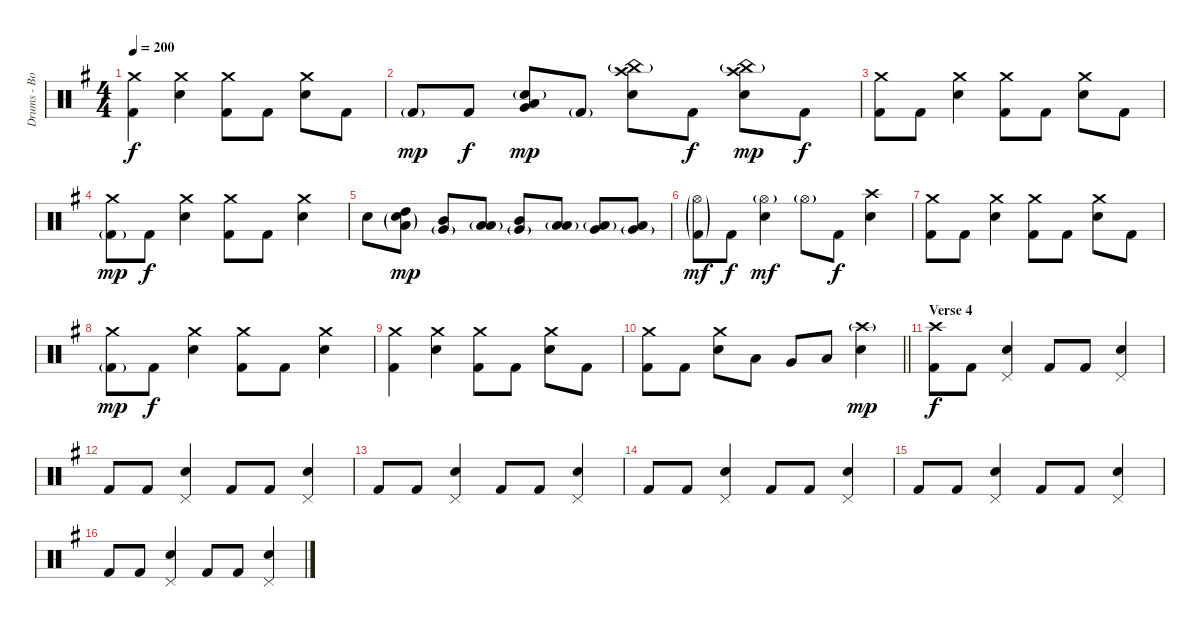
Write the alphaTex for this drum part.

\track ("Drums - Bob Bryar" "Drums - Bo") {instrument percussion}
\staff {score}
\articulation defaults
\ts (4 4)
\tempo 200
\clef neutral
\ks eminor
("Kick (hit) 2" "Crash medium (hit)").4{dy f} ("Electric Snare (hit)" "Crash medium (hit)").4 ("Kick (hit) 2" "Crash medium (hit)").8 "Kick (hit) 2".8 ("Electric Snare (hit)" "Crash medium (hit)").8 "Kick (hit) 2".8 |
"Kick (hit) 2"{g}.8{dy mp} "Kick (hit) 2".8{dy f} ("Electric Snare (hit)"{g} "Very Low Tom (hit)" "Low Floor Tom (hit)").8{dy mp} "Kick (hit) 2"{g}.8 ("Electric Snare (hit)" "Crash high (hit)" "China (hit)"{g}).8 "Kick (hit) 2".8{dy f} ("Electric Snare (hit)" "Crash high (hit)" "China (hit)"{g}).8{dy mp} "Kick (hit) 2".8{dy f} |
("Kick (hit) 2" "Crash medium (hit)").8 "Kick (hit) 2".8 ("Electric Snare (hit)" "Crash medium (hit)").4 ("Kick (hit) 2" "Crash medium (hit)").8 "Kick (hit) 2".8 ("Electric Snare (hit)" "Crash medium (hit)").8 "Kick (hit) 2".8 |
("Kick (hit) 2"{g} "Crash medium (hit)").8{dy mp} "Kick (hit) 2".8{dy f} ("Electric Snare (hit)" "Crash medium (hit)").4 ("Kick (hit) 2" "Crash medium (hit)").8 "Kick (hit) 2".8 ("Electric Snare (hit)" "Crash medium (hit)").4 |
"Electric Snare (hit)".8 ("Electric Snare (hit)"{g} "High Tom (hit)" "Low Tom (hit)"{g}).8{dy mp} ("Mid Tom (hit)" "Very Low Tom (hit)"{g}).8 ("Low Tom (hit)" "Low Floor Tom (hit)"{g}).8 ("Mid Tom (hit)" "Very Low Tom (hit)"{g}).8 ("Low Tom (hit)" "Low Floor Tom (hit)"{g}).8 ("Very Low Tom (hit)" "Low Tom (hit)"{g}).8 ("Low Floor Tom (hit)" "Very Low Tom (hit)"{g}).8 |
("Kick (hit) 2"{g} "Hi-Hat (open)"{g}).8{dy mf} "Kick (hit) 2".8{dy f} ("Electric Snare (hit)" "Hi-Hat (open)"{g}).4{dy mf} "Hi-Hat (open)"{g}.8 "Kick (hit) 2".8{dy f} ("Electric Snare (hit)" "Crash high (hit)").4 |
("Kick (hit) 2" "Crash medium (hit)").8 "Kick (hit) 2".8 ("Electric Snare (hit)" "Crash medium (hit)").4 ("Kick (hit) 2" "Crash medium (hit)").8 "Kick (hit) 2".8 ("Electric Snare (hit)" "Crash medium (hit)").8 "Kick (hit) 2".8 |
("Kick (hit) 2"{g} "Crash medium (hit)").8{dy mp} "Kick (hit) 2".8{dy f} ("Electric Snare (hit)" "Crash medium (hit)").4 ("Kick (hit) 2" "Crash medium (hit)").8 "Kick (hit) 2".8 ("Electric Snare (hit)" "Crash medium (hit)").4 |
("Kick (hit) 2" "Crash medium (hit)").4 ("Electric Snare (hit)" "Crash medium (hit)").4 ("Kick (hit) 2" "Crash medium (hit)").8 "Kick (hit) 2".8 ("Electric Snare (hit)" "Crash medium (hit)").8 "Kick (hit) 2".8 |
\barLineRight lightlight
("Kick (hit) 2" "Crash medium (hit)").8 "Kick (hit) 2".8 ("Electric Snare (hit)" "Crash medium (hit)").8 "Low Tom (hit)".8 "Very Low Tom (hit)".8 "Low Floor Tom (hit)".8 ("Electric Snare (hit)" "Crash high (hit)"{g}).4{dy mp} |
\section ("" "Verse 4")
("Kick (hit) 2" "Crash high (hit)").8{dy f} "Kick (hit) 2".8 ("Electric Snare (hit)" "Pedal Hi-Hat (hit)").4 "Kick (hit) 2".8 "Kick (hit) 2".8 ("Electric Snare (hit)" "Pedal Hi-Hat (hit)").4 |
"Kick (hit) 2".8 "Kick (hit) 2".8 ("Electric Snare (hit)" "Pedal Hi-Hat (hit)").4 "Kick (hit) 2".8 "Kick (hit) 2".8 ("Electric Snare (hit)" "Pedal Hi-Hat (hit)").4 |
"Kick (hit) 2".8 "Kick (hit) 2".8 ("Electric Snare (hit)" "Pedal Hi-Hat (hit)").4 "Kick (hit) 2".8 "Kick (hit) 2".8 ("Electric Snare (hit)" "Pedal Hi-Hat (hit)").4 |
"Kick (hit) 2".8 "Kick (hit) 2".8 ("Electric Snare (hit)" "Pedal Hi-Hat (hit)").4 "Kick (hit) 2".8 "Kick (hit) 2".8 ("Electric Snare (hit)" "Pedal Hi-Hat (hit)").4 |
"Kick (hit) 2".8 "Kick (hit) 2".8 ("Electric Snare (hit)" "Pedal Hi-Hat (hit)").4 "Kick (hit) 2".8 "Kick (hit) 2".8 ("Electric Snare (hit)" "Pedal Hi-Hat (hit)").4 |
"Kick (hit) 2".8 "Kick (hit) 2".8 ("Electric Snare (hit)" "Pedal Hi-Hat (hit)").4 "Kick (hit) 2".8 "Kick (hit) 2".8 ("Electric Snare (hit)" "Pedal Hi-Hat (hit)").4
